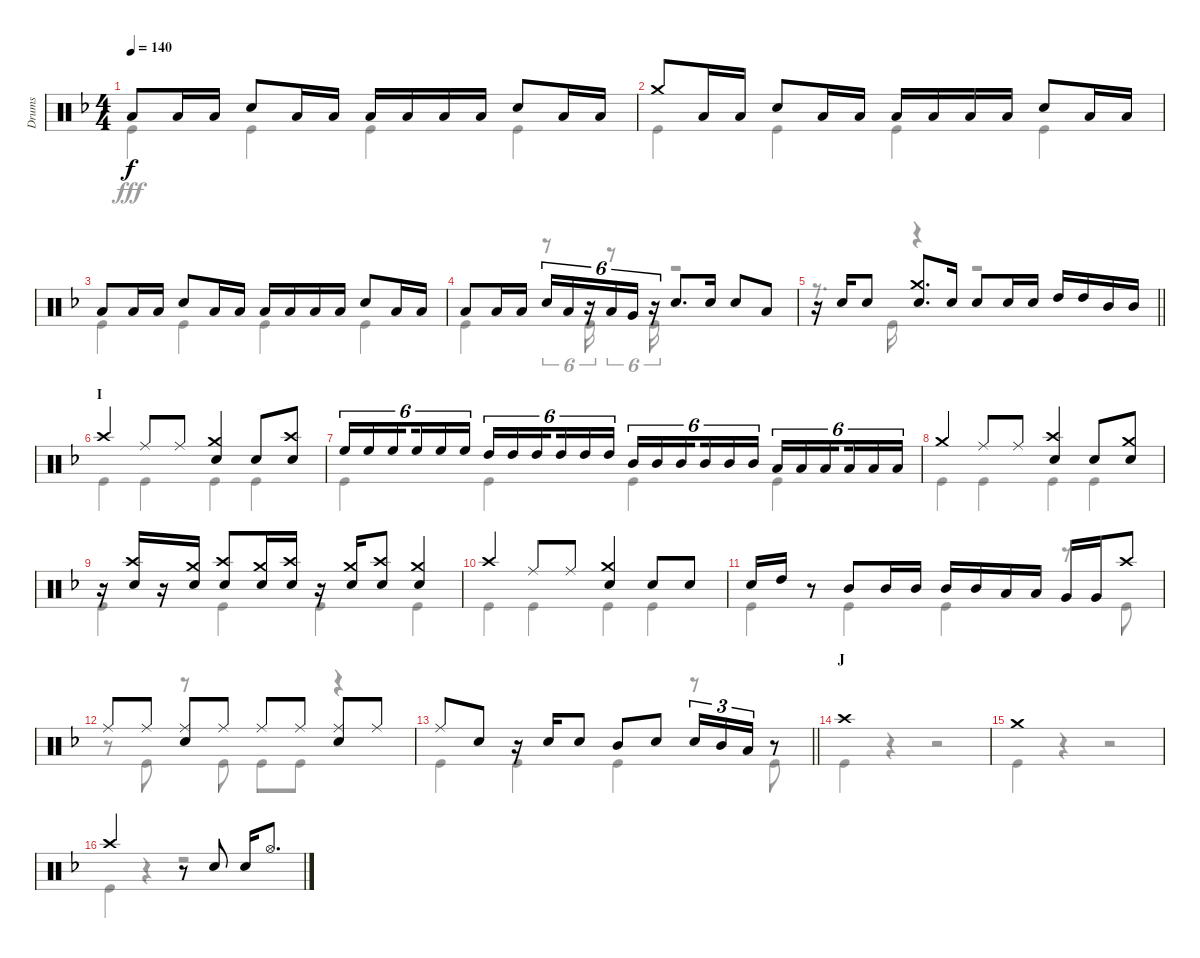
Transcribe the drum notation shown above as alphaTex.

\track ("Drums" "Drums") {instrument percussion}
\staff {score}
\articulation defaults
\voice
\ts (4 4)
\tempo 140
\clef neutral
\ks f "Low Tom (hit)".8{dy f} "Low Tom (hit)".16 "Low Tom (hit)".16 "Snare (hit) 2".8 "Low Tom (hit)".16 "Low Tom (hit)".16 "Low Tom (hit)".16 "Low Tom (hit)".16 "Low Tom (hit)".16 "Low Tom (hit)".16 "Snare (hit) 2".8 "Low Tom (hit)".16 "Low Tom (hit)".16
|
"Crash medium (hit)".8 "Low Tom (hit)".16 "Low Tom (hit)".16 "Snare (hit) 2".8 "Low Tom (hit)".16 "Low Tom (hit)".16 "Low Tom (hit)".16 "Low Tom (hit)".16 "Low Tom (hit)".16 "Low Tom (hit)".16 "Snare (hit) 2".8 "Low Tom (hit)".16 "Low Tom (hit)".16 |
"Low Tom (hit)".8 "Low Tom (hit)".16 "Low Tom (hit)".16 "Snare (hit) 2".8 "Low Tom (hit)".16 "Low Tom (hit)".16 "Low Tom (hit)".16 "Low Tom (hit)".16 "Low Tom (hit)".16 "Low Tom (hit)".16 "Snare (hit) 2".8 "Low Tom (hit)".16 "Low Tom (hit)".16 |
"Low Tom (hit)".8 "Low Tom (hit)".16 "Low Tom (hit)".16 "Snare (hit) 2".16{tu (6 4)} "Low Tom (hit)".16{tu (6 4)} r.16{tu (6 4)} "Low Tom (hit)".16{tu (6 4)} "Very Low Tom (hit)".16{tu (6 4)} r.16{tu (6 4)} "Snare (hit) 2".8{d} "Snare (hit) 2".16 "Snare (hit) 2".8 "Low Tom (hit)".8 |
\barLineRight lightlight
r.16 "Snare (hit) 2".16 "Snare (hit) 2".8 ("Crash medium (hit)" "Snare (hit) 2").8{d} "Snare (hit) 2".16 "Snare (hit) 2".8 "Snare (hit) 2".16 "Snare (hit) 2".16 "High Tom (hit)".16 "High Tom (hit)".16 "Mid Tom (hit)".16 "Mid Tom (hit)".16 |
\section ("" "I")
"Crash high (hit)".4 "Ride (middle)".8 "Ride (middle)".8 ("Crash medium (hit)" "Snare (hit) 2").4 "Snare (hit) 2".8 ("Crash high (hit)" "Snare (hit) 2").8 |
"High Floor Tom (hit)".16{tu (6 4)} "High Floor Tom (hit)".16{tu (6 4)} "High Floor Tom (hit)".16{tu (6 4) beam splitsecondary} "High Floor Tom (hit)".16{tu (6 4)} "High Floor Tom (hit)".16{tu (6 4)} "High Floor Tom (hit)".16{tu (6 4)} "High Tom (hit)".16{tu (6 4)} "High Tom (hit)".16{tu (6 4)} "High Tom (hit)".16{tu (6 4) beam splitsecondary} "High Tom (hit)".16{tu (6 4)} "High Tom (hit)".16{tu (6 4)} "High Tom (hit)".16{tu (6 4)} "Mid Tom (hit)".16{tu (6 4)} "Mid Tom (hit)".16{tu (6 4)} "Mid Tom (hit)".16{tu (6 4) beam splitsecondary} "Mid Tom (hit)".16{tu (6 4)} "Mid Tom (hit)".16{tu (6 4)} "Mid Tom (hit)".16{tu (6 4)} "Low Tom (hit)".16{tu (6 4)} "Low Tom (hit)".16{tu (6 4)} "Low Tom (hit)".16{tu (6 4) beam splitsecondary} "Low Tom (hit)".16{tu (6 4)} "Low Tom (hit)".16{tu (6 4)} "Low Tom (hit)".16{tu (6 4)} |
"Crash medium (hit)".4 "Ride (middle)".8 "Ride (middle)".8 ("Crash high (hit)" "Snare (hit) 2").4 "Snare (hit) 2".8 ("Crash medium (hit)" "Snare (hit) 2").8 |
r.16 ("Crash high (hit)" "Snare (hit) 2").16 r.16 ("Crash medium (hit)" "Snare (hit) 2").16 ("Crash high (hit)" "Snare (hit) 2").8 ("Crash medium (hit)" "Snare (hit) 2").16 ("Crash high (hit)" "Snare (hit) 2").16 r.16 ("Crash medium (hit)" "Snare (hit) 2").16 ("Crash high (hit)" "Snare (hit) 2").8 ("Crash medium (hit)" "Snare (hit) 2").4 |
"Crash high (hit)".4 "Ride (middle)".8 "Ride (middle)".8 ("Crash medium (hit)" "Snare (hit) 2").4 "Snare (hit) 2".8 "Snare (hit) 2".8 |
"Snare (hit) 2".16 "High Tom (hit)".16 r.8 "Mid Tom (hit)".8 "Mid Tom (hit)".16 "Mid Tom (hit)".16 "Mid Tom (hit)".16 "Mid Tom (hit)".16 "Low Tom (hit)".16 "Low Tom (hit)".16 "Very Low Tom (hit)".16 "Very Low Tom (hit)".16 "Crash high (hit)".8 |
"Ride (middle)".8 "Ride (middle)".8 ("Ride (middle)" "Snare (hit) 2").8 "Ride (middle)".8 "Ride (middle)".8 "Ride (middle)".8 ("Ride (middle)" "Snare (hit) 2").8 "Ride (middle)".8 |
\barLineRight lightlight "Ride (middle)".8 "Snare (hit) 2".8
r.16 "Snare (hit) 2".16 "Snare (hit) 2".8 "Mid Tom (hit)".8 "Snare (hit) 2".8 "Snare (hit) 2".16{tu (3 2)} "Mid Tom (hit)".16{tu (3 2)} "Low Tom (hit)".16{tu (3 2)} r.8 |
\section ("" "J")
"Crash high (hit)".1 |
"Crash medium (hit)".1 |
"Crash high (hit)".2 r.8 "Snare (hit) 2".8 "Snare (hit) 2".16 "Hi-Hat (open)".8{d}
\voice
\clef neutral
\ottava regular
\simile none
\ks f "Kick (hit)".4{dy fff} "Kick (hit)".4 "Kick (hit)".4 "Kick (hit)".4
|
"Kick (hit)".4 "Kick (hit)".4 "Kick (hit)".4 "Kick (hit)".4 |
"Kick (hit)".4 "Kick (hit)".4 "Kick (hit)".4 "Kick (hit)".4 |
"Kick (hit)".4 r.8{tu (6 4)} "Kick (hit)".16{tu (6 4)} r.8{tu (6 4)} "Kick (hit)".16{tu (6 4)} r.2 |
\barLineRight lightlight
r.8{d} "Kick (hit)".16 r.4 r.2 |
"Kick (hit)".4 "Kick (hit)".4 "Kick (hit)".4 "Kick (hit)".4 |
"Kick (hit)".4 "Kick (hit)".4 "Kick (hit)".4 "Kick (hit)".4 |
"Kick (hit)".4 "Kick (hit)".4 "Kick (hit)".4 "Kick (hit)".4 |
"Kick (hit)".4 "Kick (hit)".4 "Kick (hit)".4 "Kick (hit)".4 |
"Kick (hit)".4 "Kick (hit)".4 "Kick (hit)".4 "Kick (hit)".4 |
"Kick (hit)".4 "Kick (hit)".4 "Kick (hit)".4 r.8 "Kick (hit)".8 |
r.8 "Kick (hit)".8 r.8 "Kick (hit)".8 "Kick (hit)".8 "Kick (hit)".8 r.4 |
\barLineRight lightlight "Kick (hit)".4 "Kick (hit)".4 "Kick (hit)".4
r.8 "Kick (hit)".8 |
"Kick (hit)".4 r.4 r.2 |
"Kick (hit)".4 r.4 r.2 |
"Kick (hit)".4 r.4 r.2
